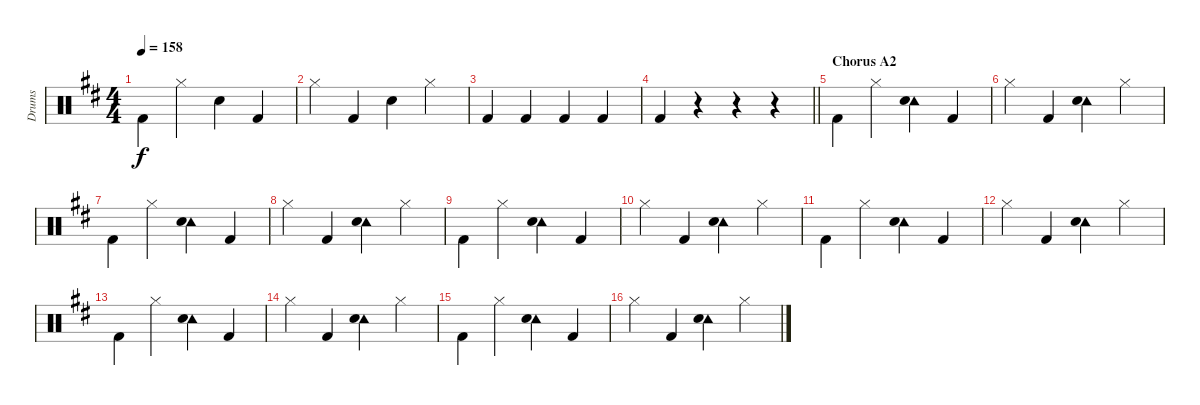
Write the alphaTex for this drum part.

\track ("Drums" "Drums") {instrument percussion}
\staff {score}
\articulation defaults
\ts (4 4)
\tempo 158
\clef neutral
\ks d "Kick (hit) 2".4{dy f beam merge} "Hi-Hat (closed)".4 "Snare (hit) 2".4 "Kick (hit) 2".4
|
"Hi-Hat (closed)".4 "Kick (hit) 2".4 "Snare (hit) 2".4 "Hi-Hat (closed)".4 |
"Kick (hit) 2".4{beam merge} "Kick (hit) 2".4 "Kick (hit) 2".4 "Kick (hit) 2".4 |
\barLineRight lightlight "Kick (hit) 2".4
r.4 r.4 r.4 |
\section ("" "Chorus A2")
"Kick (hit) 2".4{beam merge} "Hi-Hat (closed)".4 ("Tambourine (hit)" "Snare (hit) 2").4 "Kick (hit) 2".4 |
"Hi-Hat (closed)".4 "Kick (hit) 2".4 ("Tambourine (hit)" "Snare (hit) 2").4 "Hi-Hat (closed)".4 |
"Kick (hit) 2".4{beam merge} "Hi-Hat (closed)".4 ("Tambourine (hit)" "Snare (hit) 2").4 "Kick (hit) 2".4 |
"Hi-Hat (closed)".4 "Kick (hit) 2".4 ("Tambourine (hit)" "Snare (hit) 2").4 "Hi-Hat (closed)".4 |
"Kick (hit) 2".4{beam merge} "Hi-Hat (closed)".4 ("Tambourine (hit)" "Snare (hit) 2").4 "Kick (hit) 2".4 |
"Hi-Hat (closed)".4 "Kick (hit) 2".4 ("Tambourine (hit)" "Snare (hit) 2").4 "Hi-Hat (closed)".4 |
"Kick (hit) 2".4{beam merge} "Hi-Hat (closed)".4 ("Tambourine (hit)" "Snare (hit) 2").4 "Kick (hit) 2".4 |
"Hi-Hat (closed)".4 "Kick (hit) 2".4 ("Tambourine (hit)" "Snare (hit) 2").4 "Hi-Hat (closed)".4 |
"Kick (hit) 2".4{beam merge} "Hi-Hat (closed)".4 ("Tambourine (hit)" "Snare (hit) 2").4 "Kick (hit) 2".4 |
"Hi-Hat (closed)".4 "Kick (hit) 2".4 ("Tambourine (hit)" "Snare (hit) 2").4 "Hi-Hat (closed)".4 |
"Kick (hit) 2".4{beam merge} "Hi-Hat (closed)".4 ("Tambourine (hit)" "Snare (hit) 2").4 "Kick (hit) 2".4 |
"Hi-Hat (closed)".4 "Kick (hit) 2".4 ("Tambourine (hit)" "Snare (hit) 2").4 "Hi-Hat (closed)".4
